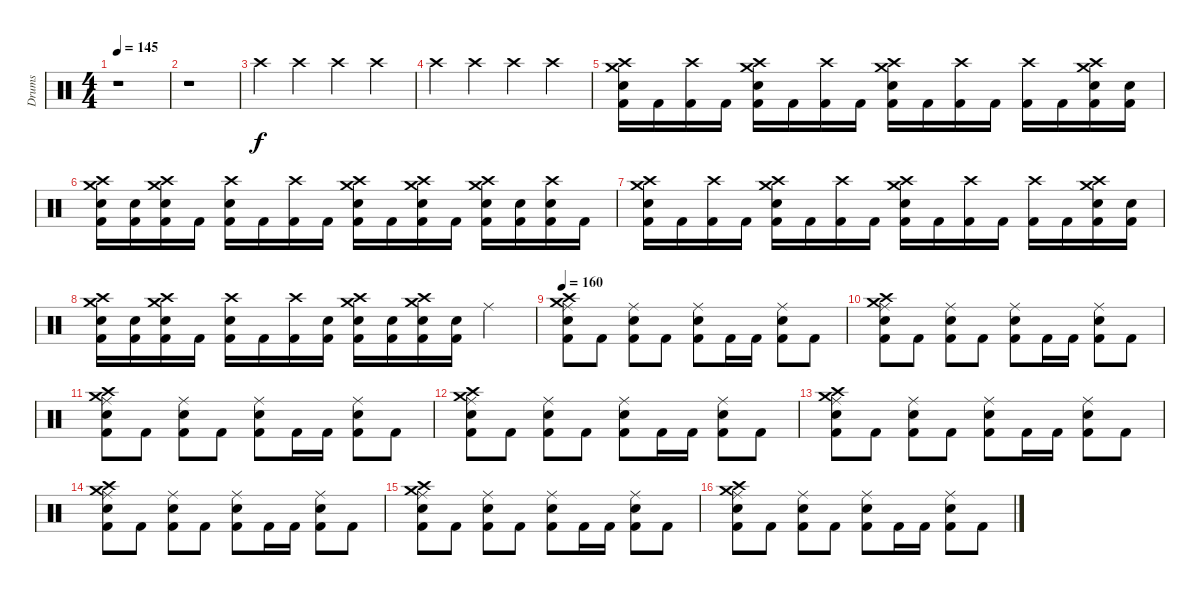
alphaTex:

\track ("Drums" "Drums") {instrument percussion}
\staff {score}
\articulation defaults
\ts (4 4)
\tempo 145
\clef neutral
\ks c
r.1{dy f} |
r.1 |
"Crash high (hit)".4{volume 5} "Crash high (hit)".4 "Crash high (hit)".4 "Crash high (hit)".4 |
"Crash high (hit)".4{volume 9} "Crash high (hit)".4 "Crash high (hit)".4 "Crash high (hit)".4 |
("Crash high (hit)" "Crash medium (hit)" "Snare (hit) 2" "Kick (hit) 2").16{volume 13} "Kick (hit) 2".16 ("Crash high (hit)" "Kick (hit) 2").16 "Kick (hit) 2".16 ("Crash high (hit)" "Crash medium (hit)" "Snare (hit) 2" "Kick (hit) 2").16 "Kick (hit) 2".16 ("Crash high (hit)" "Kick (hit) 2").16 "Kick (hit) 2".16 ("Crash high (hit)" "Crash medium (hit)" "Snare (hit) 2" "Kick (hit) 2").16 "Kick (hit) 2".16 ("Crash high (hit)" "Kick (hit) 2").16 "Kick (hit) 2".16 ("Crash high (hit)" "Kick (hit) 2").16 "Kick (hit) 2".16 ("Crash high (hit)" "Crash medium (hit)" "Snare (hit) 2" "Kick (hit) 2").16 ("Snare (hit) 2" "Kick (hit) 2").16 |
("Crash high (hit)" "Crash medium (hit)" "Snare (hit) 2" "Kick (hit) 2").16 ("Snare (hit) 2" "Kick (hit) 2").16 ("Crash high (hit)" "Crash medium (hit)" "Snare (hit) 2" "Kick (hit) 2").16 "Kick (hit) 2".16 ("Crash high (hit)" "Snare (hit) 2" "Kick (hit) 2").16 "Kick (hit) 2".16 ("Crash high (hit)" "Kick (hit) 2").16 "Kick (hit) 2".16 ("Crash high (hit)" "Crash medium (hit)" "Snare (hit) 2" "Kick (hit) 2").16 "Kick (hit) 2".16 ("Crash high (hit)" "Crash medium (hit)" "Snare (hit) 2" "Kick (hit) 2").16 "Kick (hit) 2".16 ("Crash high (hit)" "Crash medium (hit)" "Snare (hit) 2" "Kick (hit) 2").16 ("Snare (hit) 2" "Kick (hit) 2").16 ("Crash high (hit)" "Snare (hit) 2" "Kick (hit) 2").16 "Kick (hit) 2".16 |
("Crash high (hit)" "Crash medium (hit)" "Snare (hit) 2" "Kick (hit) 2").16 "Kick (hit) 2".16 ("Crash high (hit)" "Kick (hit) 2").16 "Kick (hit) 2".16 ("Crash high (hit)" "Crash medium (hit)" "Snare (hit) 2" "Kick (hit) 2").16 "Kick (hit) 2".16 ("Crash high (hit)" "Kick (hit) 2").16 "Kick (hit) 2".16 ("Crash high (hit)" "Crash medium (hit)" "Snare (hit) 2" "Kick (hit) 2").16 "Kick (hit) 2".16 ("Crash high (hit)" "Kick (hit) 2").16 "Kick (hit) 2".16 ("Crash high (hit)" "Kick (hit) 2").16 "Kick (hit) 2".16 ("Crash high (hit)" "Crash medium (hit)" "Snare (hit) 2" "Kick (hit) 2").16 ("Snare (hit) 2" "Kick (hit) 2").16 |
("Crash high (hit)" "Crash medium (hit)" "Snare (hit) 2" "Kick (hit) 2").16 ("Snare (hit) 2" "Kick (hit) 2").16 ("Crash high (hit)" "Crash medium (hit)" "Snare (hit) 2" "Kick (hit) 2").16 "Kick (hit) 2".16 ("Crash high (hit)" "Snare (hit) 2" "Kick (hit) 2").16 "Kick (hit) 2".16 ("Crash high (hit)" "Kick (hit) 2").16 ("Snare (hit) 2" "Kick (hit) 2").16 ("Crash high (hit)" "Crash medium (hit)" "Snare (hit) 2" "Kick (hit) 2").16 ("Snare (hit) 2" "Kick (hit) 2").16 ("Crash high (hit)" "Crash medium (hit)" "Snare (hit) 2" "Kick (hit) 2").16 ("Snare (hit) 2" "Kick (hit) 2").16 "Ride (middle)".4 |
\tempo 160
("Crash medium (hit)" "Crash high (hit)" "Ride (middle)" "Snare (hit) 2" "Kick (hit) 2").8 "Kick (hit) 2".8 ("Ride (middle)" "Snare (hit) 2" "Kick (hit) 2").8 "Kick (hit) 2".8 ("Ride (middle)" "Snare (hit) 2" "Kick (hit) 2").8 "Kick (hit) 2".16 "Kick (hit) 2".16 ("Ride (middle)" "Snare (hit) 2" "Kick (hit) 2").8 "Kick (hit) 2".8 |
("Crash medium (hit)" "Crash high (hit)" "Ride (middle)" "Snare (hit) 2" "Kick (hit) 2").8 "Kick (hit) 2".8 ("Ride (middle)" "Snare (hit) 2" "Kick (hit) 2").8 "Kick (hit) 2".8 ("Ride (middle)" "Snare (hit) 2" "Kick (hit) 2").8 "Kick (hit) 2".16 "Kick (hit) 2".16 ("Ride (middle)" "Snare (hit) 2" "Kick (hit) 2").8 "Kick (hit) 2".8 |
("Crash medium (hit)" "Crash high (hit)" "Ride (middle)" "Snare (hit) 2" "Kick (hit) 2").8 "Kick (hit) 2".8 ("Ride (middle)" "Snare (hit) 2" "Kick (hit) 2").8 "Kick (hit) 2".8 ("Ride (middle)" "Snare (hit) 2" "Kick (hit) 2").8 "Kick (hit) 2".16 "Kick (hit) 2".16 ("Ride (middle)" "Snare (hit) 2" "Kick (hit) 2").8 "Kick (hit) 2".8 |
("Crash medium (hit)" "Crash high (hit)" "Ride (middle)" "Snare (hit) 2" "Kick (hit) 2").8 "Kick (hit) 2".8 ("Ride (middle)" "Snare (hit) 2" "Kick (hit) 2").8 "Kick (hit) 2".8 ("Ride (middle)" "Snare (hit) 2" "Kick (hit) 2").8 "Kick (hit) 2".16 "Kick (hit) 2".16 ("Ride (middle)" "Snare (hit) 2" "Kick (hit) 2").8 "Kick (hit) 2".8 |
("Crash medium (hit)" "Crash high (hit)" "Ride (middle)" "Snare (hit) 2" "Kick (hit) 2").8 "Kick (hit) 2".8 ("Ride (middle)" "Snare (hit) 2" "Kick (hit) 2").8 "Kick (hit) 2".8 ("Ride (middle)" "Snare (hit) 2" "Kick (hit) 2").8 "Kick (hit) 2".16 "Kick (hit) 2".16 ("Ride (middle)" "Snare (hit) 2" "Kick (hit) 2").8 "Kick (hit) 2".8 |
("Crash medium (hit)" "Crash high (hit)" "Ride (middle)" "Snare (hit) 2" "Kick (hit) 2").8 "Kick (hit) 2".8 ("Ride (middle)" "Snare (hit) 2" "Kick (hit) 2").8 "Kick (hit) 2".8 ("Ride (middle)" "Snare (hit) 2" "Kick (hit) 2").8 "Kick (hit) 2".16 "Kick (hit) 2".16 ("Ride (middle)" "Snare (hit) 2" "Kick (hit) 2").8 "Kick (hit) 2".8 |
("Crash medium (hit)" "Crash high (hit)" "Ride (middle)" "Snare (hit) 2" "Kick (hit) 2").8 "Kick (hit) 2".8 ("Ride (middle)" "Snare (hit) 2" "Kick (hit) 2").8 "Kick (hit) 2".8 ("Ride (middle)" "Snare (hit) 2" "Kick (hit) 2").8 "Kick (hit) 2".16 "Kick (hit) 2".16 ("Ride (middle)" "Snare (hit) 2" "Kick (hit) 2").8 "Kick (hit) 2".8 |
("Crash medium (hit)" "Crash high (hit)" "Ride (middle)" "Snare (hit) 2" "Kick (hit) 2").8 "Kick (hit) 2".8 ("Ride (middle)" "Snare (hit) 2" "Kick (hit) 2").8 "Kick (hit) 2".8 ("Ride (middle)" "Snare (hit) 2" "Kick (hit) 2").8 "Kick (hit) 2".16 "Kick (hit) 2".16 ("Ride (middle)" "Snare (hit) 2" "Kick (hit) 2").8 "Kick (hit) 2".8
